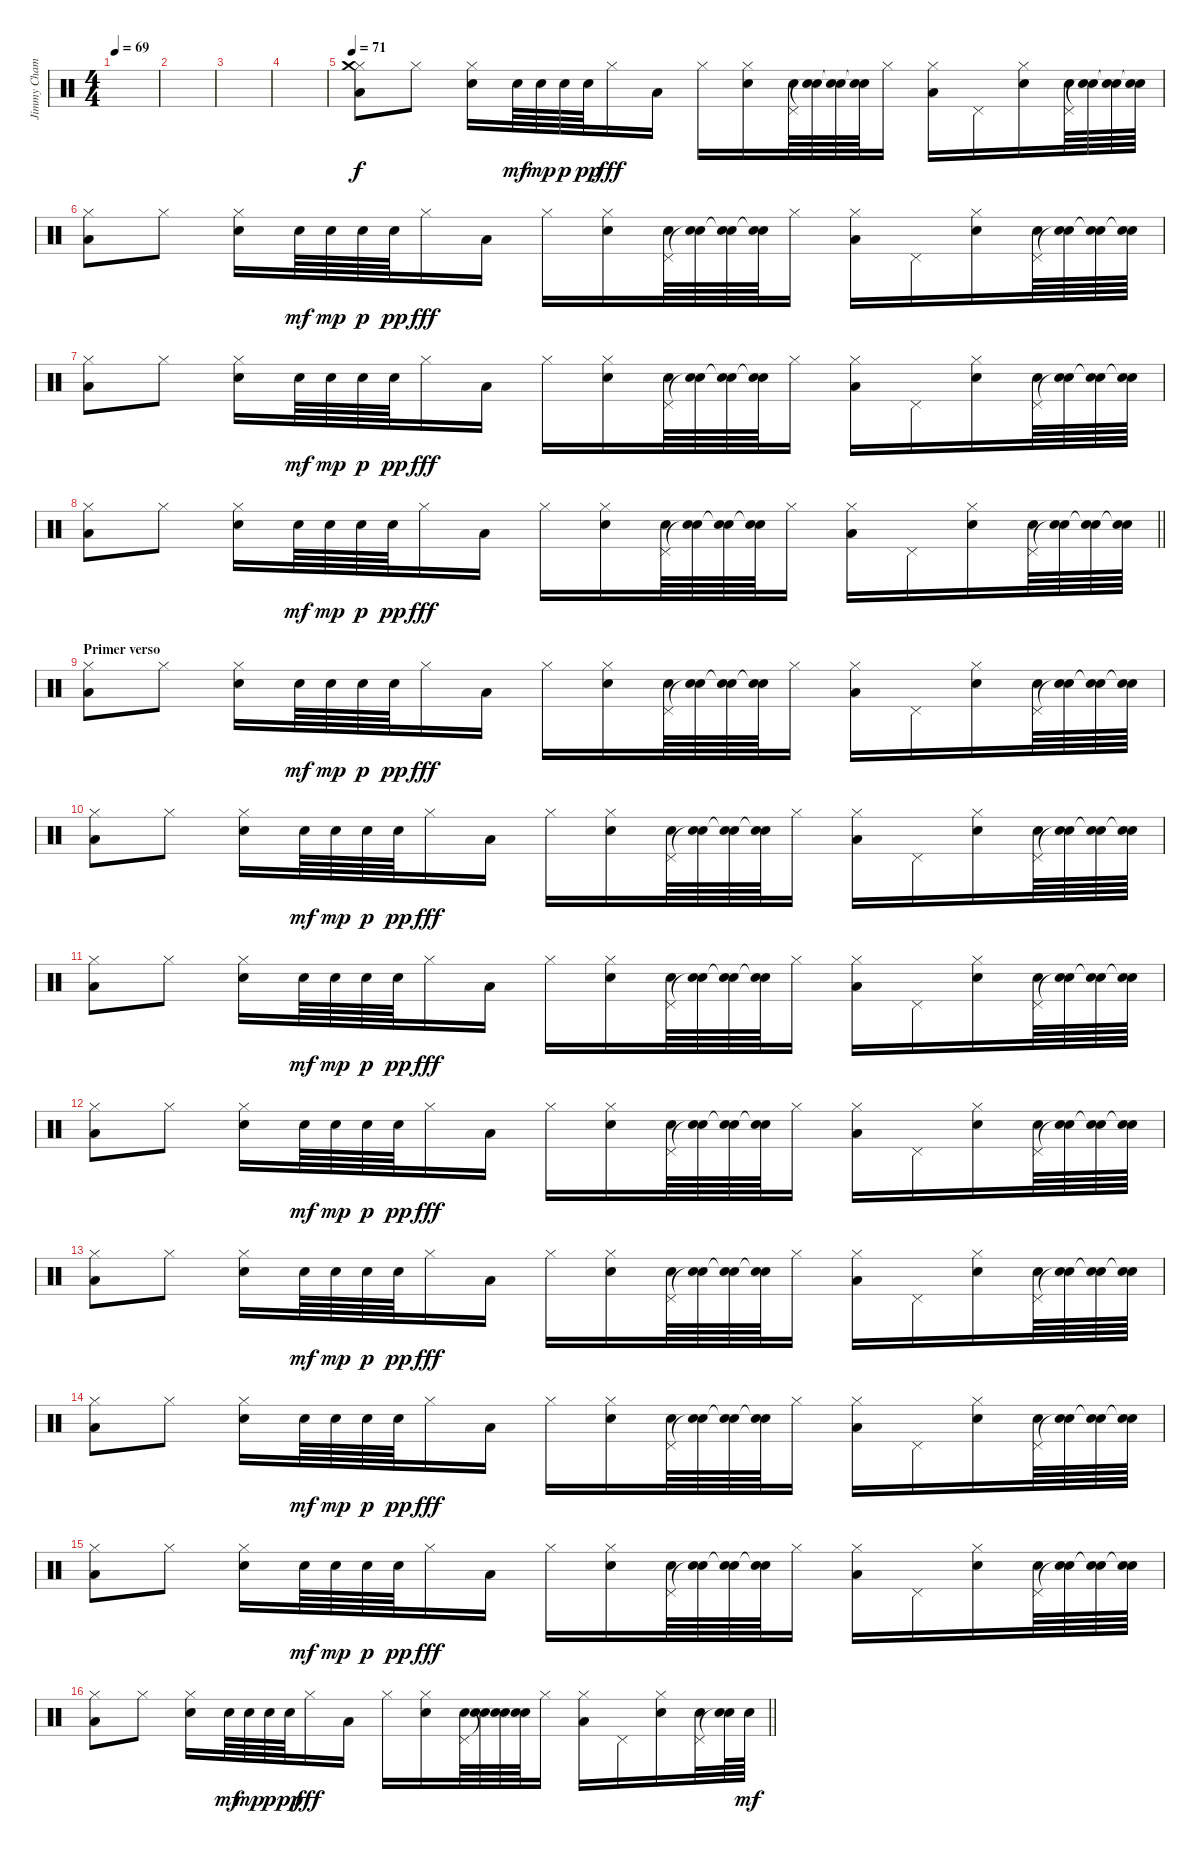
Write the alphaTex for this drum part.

\track ("Jimmy Chamberlin" "Jimmy Cham") {instrument percussion}
\staff {score}
\articulation defaults
\ts (4 4)
\tempo 69
\clef neutral
\ks c
|
|
|
|
\tempo 71
("Low Tom (hit)" "Hi-Hat (closed)" "Crash medium (hit)").8 "Hi-Hat (closed)".8 ("Hi-Hat (closed)" "Snare (hit) 2").16 "Snare (hit) 2".64{dy mf} "Snare (hit) 2".64{dy mp} "Snare (hit) 2".64{dy p} "Snare (hit) 2".64{dy pp} "Hi-Hat (closed)".16{dy fff} "Low Tom (hit)".16 "Hi-Hat (closed)".16 ("Snare (hit) 2" "Hi-Hat (closed)").16 ("Snare (hit) 2" "Pedal Hi-Hat (hit)").64 ("Snare (hit) 2" "Snare (hit)"{t}).64 ("Snare (hit) 2" "Snare (hit)"{t}).64 ("Snare (hit) 2" "Snare (hit)"{t}).64 "Hi-Hat (closed)".16 ("Low Tom (hit)" "Hi-Hat (closed)").16 "Pedal Hi-Hat (hit)".16 ("Snare (hit) 2" "Hi-Hat (closed)").16 ("Snare (hit) 2" "Pedal Hi-Hat (hit)").64 ("Snare (hit) 2" "Snare (hit)"{t}).64 ("Snare (hit) 2" "Snare (hit)"{t}).64 ("Snare (hit) 2" "Snare (hit)"{t}).64 |
("Low Tom (hit)" "Hi-Hat (closed)").8 "Hi-Hat (closed)".8 ("Hi-Hat (closed)" "Snare (hit) 2").16 "Snare (hit) 2".64{dy mf} "Snare (hit) 2".64{dy mp} "Snare (hit) 2".64{dy p} "Snare (hit) 2".64{dy pp} "Hi-Hat (closed)".16{dy fff} "Low Tom (hit)".16 "Hi-Hat (closed)".16 ("Snare (hit) 2" "Hi-Hat (closed)").16 ("Snare (hit) 2" "Pedal Hi-Hat (hit)").64 ("Snare (hit) 2" "Snare (hit)"{t}).64 ("Snare (hit) 2" "Snare (hit)"{t}).64 ("Snare (hit) 2" "Snare (hit)"{t}).64 "Hi-Hat (closed)".16 ("Low Tom (hit)" "Hi-Hat (closed)").16 "Pedal Hi-Hat (hit)".16 ("Snare (hit) 2" "Hi-Hat (closed)").16 ("Snare (hit) 2" "Pedal Hi-Hat (hit)").64 ("Snare (hit) 2" "Snare (hit)"{t}).64 ("Snare (hit) 2" "Snare (hit)"{t}).64 ("Snare (hit) 2" "Snare (hit)"{t}).64 |
("Low Tom (hit)" "Hi-Hat (closed)").8 "Hi-Hat (closed)".8 ("Hi-Hat (closed)" "Snare (hit) 2").16 "Snare (hit) 2".64{dy mf} "Snare (hit) 2".64{dy mp} "Snare (hit) 2".64{dy p} "Snare (hit) 2".64{dy pp} "Hi-Hat (closed)".16{dy fff} "Low Tom (hit)".16 "Hi-Hat (closed)".16 ("Snare (hit) 2" "Hi-Hat (closed)").16 ("Snare (hit) 2" "Pedal Hi-Hat (hit)").64 ("Snare (hit) 2" "Snare (hit)"{t}).64 ("Snare (hit) 2" "Snare (hit)"{t}).64 ("Snare (hit) 2" "Snare (hit)"{t}).64 "Hi-Hat (closed)".16 ("Low Tom (hit)" "Hi-Hat (closed)").16 "Pedal Hi-Hat (hit)".16 ("Snare (hit) 2" "Hi-Hat (closed)").16 ("Snare (hit) 2" "Pedal Hi-Hat (hit)").64 ("Snare (hit) 2" "Snare (hit)"{t}).64 ("Snare (hit) 2" "Snare (hit)"{t}).64 ("Snare (hit) 2" "Snare (hit)"{t}).64 |
\barLineRight lightlight
("Low Tom (hit)" "Hi-Hat (closed)").8 "Hi-Hat (closed)".8 ("Hi-Hat (closed)" "Snare (hit) 2").16 "Snare (hit) 2".64{dy mf} "Snare (hit) 2".64{dy mp} "Snare (hit) 2".64{dy p} "Snare (hit) 2".64{dy pp} "Hi-Hat (closed)".16{dy fff} "Low Tom (hit)".16 "Hi-Hat (closed)".16 ("Snare (hit) 2" "Hi-Hat (closed)").16 ("Snare (hit) 2" "Pedal Hi-Hat (hit)").64 ("Snare (hit) 2" "Snare (hit)"{t}).64 ("Snare (hit) 2" "Snare (hit)"{t}).64 ("Snare (hit) 2" "Snare (hit)"{t}).64 "Hi-Hat (closed)".16 ("Low Tom (hit)" "Hi-Hat (closed)").16 "Pedal Hi-Hat (hit)".16 ("Snare (hit) 2" "Hi-Hat (closed)").16 ("Snare (hit) 2" "Pedal Hi-Hat (hit)").64 ("Snare (hit) 2" "Snare (hit)"{t}).64 ("Snare (hit) 2" "Snare (hit)"{t}).64 ("Snare (hit) 2" "Snare (hit)"{t}).64 |
\section ("" "Primer verso")
("Low Tom (hit)" "Hi-Hat (closed)").8 "Hi-Hat (closed)".8 ("Hi-Hat (closed)" "Snare (hit) 2").16 "Snare (hit) 2".64{dy mf} "Snare (hit) 2".64{dy mp} "Snare (hit) 2".64{dy p} "Snare (hit) 2".64{dy pp} "Hi-Hat (closed)".16{dy fff} "Low Tom (hit)".16 "Hi-Hat (closed)".16 ("Snare (hit) 2" "Hi-Hat (closed)").16 ("Snare (hit) 2" "Pedal Hi-Hat (hit)").64 ("Snare (hit) 2" "Snare (hit)"{t}).64 ("Snare (hit) 2" "Snare (hit)"{t}).64 ("Snare (hit) 2" "Snare (hit)"{t}).64 "Hi-Hat (closed)".16 ("Low Tom (hit)" "Hi-Hat (closed)").16 "Pedal Hi-Hat (hit)".16 ("Snare (hit) 2" "Hi-Hat (closed)").16 ("Snare (hit) 2" "Pedal Hi-Hat (hit)").64 ("Snare (hit) 2" "Snare (hit)"{t}).64 ("Snare (hit) 2" "Snare (hit)"{t}).64 ("Snare (hit) 2" "Snare (hit)"{t}).64 |
("Low Tom (hit)" "Hi-Hat (closed)").8 "Hi-Hat (closed)".8 ("Hi-Hat (closed)" "Snare (hit) 2").16 "Snare (hit) 2".64{dy mf} "Snare (hit) 2".64{dy mp} "Snare (hit) 2".64{dy p} "Snare (hit) 2".64{dy pp} "Hi-Hat (closed)".16{dy fff} "Low Tom (hit)".16 "Hi-Hat (closed)".16 ("Snare (hit) 2" "Hi-Hat (closed)").16 ("Snare (hit) 2" "Pedal Hi-Hat (hit)").64 ("Snare (hit) 2" "Snare (hit)"{t}).64 ("Snare (hit) 2" "Snare (hit)"{t}).64 ("Snare (hit) 2" "Snare (hit)"{t}).64 "Hi-Hat (closed)".16 ("Low Tom (hit)" "Hi-Hat (closed)").16 "Pedal Hi-Hat (hit)".16 ("Snare (hit) 2" "Hi-Hat (closed)").16 ("Snare (hit) 2" "Pedal Hi-Hat (hit)").64 ("Snare (hit) 2" "Snare (hit)"{t}).64 ("Snare (hit) 2" "Snare (hit)"{t}).64 ("Snare (hit) 2" "Snare (hit)"{t}).64 |
("Low Tom (hit)" "Hi-Hat (closed)").8 "Hi-Hat (closed)".8 ("Hi-Hat (closed)" "Snare (hit) 2").16 "Snare (hit) 2".64{dy mf} "Snare (hit) 2".64{dy mp} "Snare (hit) 2".64{dy p} "Snare (hit) 2".64{dy pp} "Hi-Hat (closed)".16{dy fff} "Low Tom (hit)".16 "Hi-Hat (closed)".16 ("Snare (hit) 2" "Hi-Hat (closed)").16 ("Snare (hit) 2" "Pedal Hi-Hat (hit)").64 ("Snare (hit) 2" "Snare (hit)"{t}).64 ("Snare (hit) 2" "Snare (hit)"{t}).64 ("Snare (hit) 2" "Snare (hit)"{t}).64 "Hi-Hat (closed)".16 ("Low Tom (hit)" "Hi-Hat (closed)").16 "Pedal Hi-Hat (hit)".16 ("Snare (hit) 2" "Hi-Hat (closed)").16 ("Snare (hit) 2" "Pedal Hi-Hat (hit)").64 ("Snare (hit) 2" "Snare (hit)"{t}).64 ("Snare (hit) 2" "Snare (hit)"{t}).64 ("Snare (hit) 2" "Snare (hit)"{t}).64 |
("Low Tom (hit)" "Hi-Hat (closed)").8 "Hi-Hat (closed)".8 ("Hi-Hat (closed)" "Snare (hit) 2").16 "Snare (hit) 2".64{dy mf} "Snare (hit) 2".64{dy mp} "Snare (hit) 2".64{dy p} "Snare (hit) 2".64{dy pp} "Hi-Hat (closed)".16{dy fff} "Low Tom (hit)".16 "Hi-Hat (closed)".16 ("Snare (hit) 2" "Hi-Hat (closed)").16 ("Snare (hit) 2" "Pedal Hi-Hat (hit)").64 ("Snare (hit) 2" "Snare (hit)"{t}).64 ("Snare (hit) 2" "Snare (hit)"{t}).64 ("Snare (hit) 2" "Snare (hit)"{t}).64 "Hi-Hat (closed)".16 ("Low Tom (hit)" "Hi-Hat (closed)").16 "Pedal Hi-Hat (hit)".16 ("Snare (hit) 2" "Hi-Hat (closed)").16 ("Snare (hit) 2" "Pedal Hi-Hat (hit)").64 ("Snare (hit) 2" "Snare (hit)"{t}).64 ("Snare (hit) 2" "Snare (hit)"{t}).64 ("Snare (hit) 2" "Snare (hit)"{t}).64 |
("Low Tom (hit)" "Hi-Hat (closed)").8 "Hi-Hat (closed)".8 ("Hi-Hat (closed)" "Snare (hit) 2").16 "Snare (hit) 2".64{dy mf} "Snare (hit) 2".64{dy mp} "Snare (hit) 2".64{dy p} "Snare (hit) 2".64{dy pp} "Hi-Hat (closed)".16{dy fff} "Low Tom (hit)".16 "Hi-Hat (closed)".16 ("Snare (hit) 2" "Hi-Hat (closed)").16 ("Snare (hit) 2" "Pedal Hi-Hat (hit)").64 ("Snare (hit) 2" "Snare (hit)"{t}).64 ("Snare (hit) 2" "Snare (hit)"{t}).64 ("Snare (hit) 2" "Snare (hit)"{t}).64 "Hi-Hat (closed)".16 ("Low Tom (hit)" "Hi-Hat (closed)").16 "Pedal Hi-Hat (hit)".16 ("Snare (hit) 2" "Hi-Hat (closed)").16 ("Snare (hit) 2" "Pedal Hi-Hat (hit)").64 ("Snare (hit) 2" "Snare (hit)"{t}).64 ("Snare (hit) 2" "Snare (hit)"{t}).64 ("Snare (hit) 2" "Snare (hit)"{t}).64 |
("Low Tom (hit)" "Hi-Hat (closed)").8 "Hi-Hat (closed)".8 ("Hi-Hat (closed)" "Snare (hit) 2").16 "Snare (hit) 2".64{dy mf} "Snare (hit) 2".64{dy mp} "Snare (hit) 2".64{dy p} "Snare (hit) 2".64{dy pp} "Hi-Hat (closed)".16{dy fff} "Low Tom (hit)".16 "Hi-Hat (closed)".16 ("Snare (hit) 2" "Hi-Hat (closed)").16 ("Snare (hit) 2" "Pedal Hi-Hat (hit)").64 ("Snare (hit) 2" "Snare (hit)"{t}).64 ("Snare (hit) 2" "Snare (hit)"{t}).64 ("Snare (hit) 2" "Snare (hit)"{t}).64 "Hi-Hat (closed)".16 ("Low Tom (hit)" "Hi-Hat (closed)").16 "Pedal Hi-Hat (hit)".16 ("Snare (hit) 2" "Hi-Hat (closed)").16 ("Snare (hit) 2" "Pedal Hi-Hat (hit)").64 ("Snare (hit) 2" "Snare (hit)"{t}).64 ("Snare (hit) 2" "Snare (hit)"{t}).64 ("Snare (hit) 2" "Snare (hit)"{t}).64 |
("Low Tom (hit)" "Hi-Hat (closed)").8 "Hi-Hat (closed)".8 ("Hi-Hat (closed)" "Snare (hit) 2").16 "Snare (hit) 2".64{dy mf} "Snare (hit) 2".64{dy mp} "Snare (hit) 2".64{dy p} "Snare (hit) 2".64{dy pp} "Hi-Hat (closed)".16{dy fff} "Low Tom (hit)".16 "Hi-Hat (closed)".16 ("Snare (hit) 2" "Hi-Hat (closed)").16 ("Snare (hit) 2" "Pedal Hi-Hat (hit)").64 ("Snare (hit) 2" "Snare (hit)"{t}).64 ("Snare (hit) 2" "Snare (hit)"{t}).64 ("Snare (hit) 2" "Snare (hit)"{t}).64 "Hi-Hat (closed)".16 ("Low Tom (hit)" "Hi-Hat (closed)").16 "Pedal Hi-Hat (hit)".16 ("Snare (hit) 2" "Hi-Hat (closed)").16 ("Snare (hit) 2" "Pedal Hi-Hat (hit)").64 ("Snare (hit) 2" "Snare (hit)"{t}).64 ("Snare (hit) 2" "Snare (hit)"{t}).64 ("Snare (hit) 2" "Snare (hit)"{t}).64 |
\barLineRight lightlight
("Low Tom (hit)" "Hi-Hat (closed)").8 "Hi-Hat (closed)".8 ("Hi-Hat (closed)" "Snare (hit) 2").16 "Snare (hit) 2".64{dy mf} "Snare (hit) 2".64{dy mp} "Snare (hit) 2".64{dy p} "Snare (hit) 2".64{dy pp} "Hi-Hat (closed)".16{dy fff} "Low Tom (hit)".16 "Hi-Hat (closed)".16 ("Snare (hit) 2" "Hi-Hat (closed)").16 ("Snare (hit) 2" "Pedal Hi-Hat (hit)").64 ("Snare (hit) 2" "Snare (hit)"{t}).64 ("Snare (hit) 2" "Snare (hit)"{t}).64 ("Snare (hit) 2" "Snare (hit)"{t}).64 "Hi-Hat (closed)".16 ("Low Tom (hit)" "Hi-Hat (closed)").16 "Pedal Hi-Hat (hit)".16 ("Snare (hit) 2" "Hi-Hat (closed)").16 ("Snare (hit) 2" "Pedal Hi-Hat (hit)").32 ("Snare (hit) 2" "Snare (hit)"{t}).64 "Snare (hit) 2".64{dy mf}
